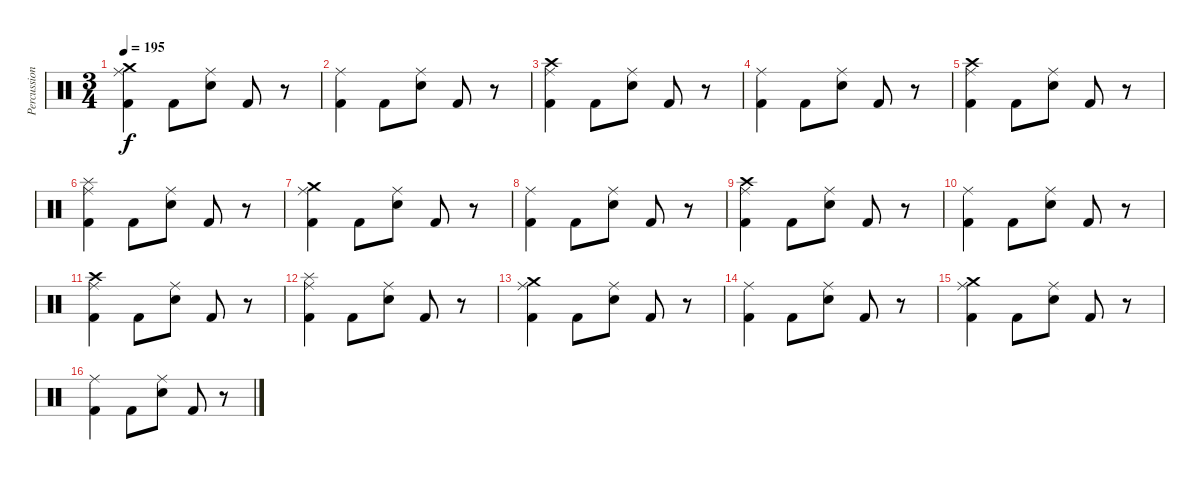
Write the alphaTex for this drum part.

\track ("Percussion" "Percussion") {instrument percussion}
\staff {score}
\articulation defaults
\ts (3 4)
\tempo 195
\clef neutral
\ks c
("Ride (middle)" "Crash medium (hit)" "Kick (hit) 2").4{dy f} "Kick (hit) 2".8 ("Ride (middle)" "Snare (hit) 2").8 "Kick (hit) 2".8 r.8 |
("Ride (middle)" "Kick (hit) 2").4 "Kick (hit) 2".8 ("Ride (middle)" "Snare (hit) 2").8 "Kick (hit) 2".8 r.8 |
("Ride (middle)" "Crash high (hit)" "Kick (hit) 2").4 "Kick (hit) 2".8 ("Ride (middle)" "Snare (hit) 2").8 "Kick (hit) 2".8 r.8 |
("Ride (middle)" "Kick (hit) 2").4 "Kick (hit) 2".8 ("Ride (middle)" "Snare (hit) 2").8 "Kick (hit) 2".8 r.8 |
("Ride (middle)" "Crash high (hit)" "Kick (hit) 2").4 "Kick (hit) 2".8 ("Ride (middle)" "Snare (hit) 2").8 "Kick (hit) 2".8 r.8 |
("Ride (middle)" "Splash (hit)" "Kick (hit) 2").4 "Kick (hit) 2".8 ("Ride (middle)" "Snare (hit) 2").8 "Kick (hit) 2".8 r.8 |
("Ride (middle)" "Crash medium (hit)" "Kick (hit) 2").4 "Kick (hit) 2".8 ("Ride (middle)" "Snare (hit) 2").8 "Kick (hit) 2".8 r.8 |
("Ride (middle)" "Kick (hit) 2").4 "Kick (hit) 2".8 ("Ride (middle)" "Snare (hit) 2").8 "Kick (hit) 2".8 r.8 |
("Ride (middle)" "Crash high (hit)" "Kick (hit) 2").4 "Kick (hit) 2".8 ("Ride (middle)" "Snare (hit) 2").8 "Kick (hit) 2".8 r.8 |
("Ride (middle)" "Kick (hit) 2").4 "Kick (hit) 2".8 ("Ride (middle)" "Snare (hit) 2").8 "Kick (hit) 2".8 r.8 |
("Ride (middle)" "Crash high (hit)" "Kick (hit) 2").4 "Kick (hit) 2".8 ("Ride (middle)" "Snare (hit) 2").8 "Kick (hit) 2".8 r.8 |
("Ride (middle)" "Splash (hit)" "Kick (hit) 2").4 "Kick (hit) 2".8 ("Ride (middle)" "Snare (hit) 2").8 "Kick (hit) 2".8 r.8 |
("Ride (middle)" "Crash medium (hit)" "Kick (hit) 2").4 "Kick (hit) 2".8 ("Ride (middle)" "Snare (hit) 2").8 "Kick (hit) 2".8 r.8 |
("Ride (middle)" "Kick (hit) 2").4 "Kick (hit) 2".8 ("Ride (middle)" "Snare (hit) 2").8 "Kick (hit) 2".8 r.8 |
("Ride (middle)" "Crash medium (hit)" "Kick (hit) 2").4 "Kick (hit) 2".8 ("Ride (middle)" "Snare (hit) 2").8 "Kick (hit) 2".8 r.8 |
("Ride (middle)" "Kick (hit) 2").4 "Kick (hit) 2".8 ("Ride (middle)" "Snare (hit) 2").8 "Kick (hit) 2".8 r.8
